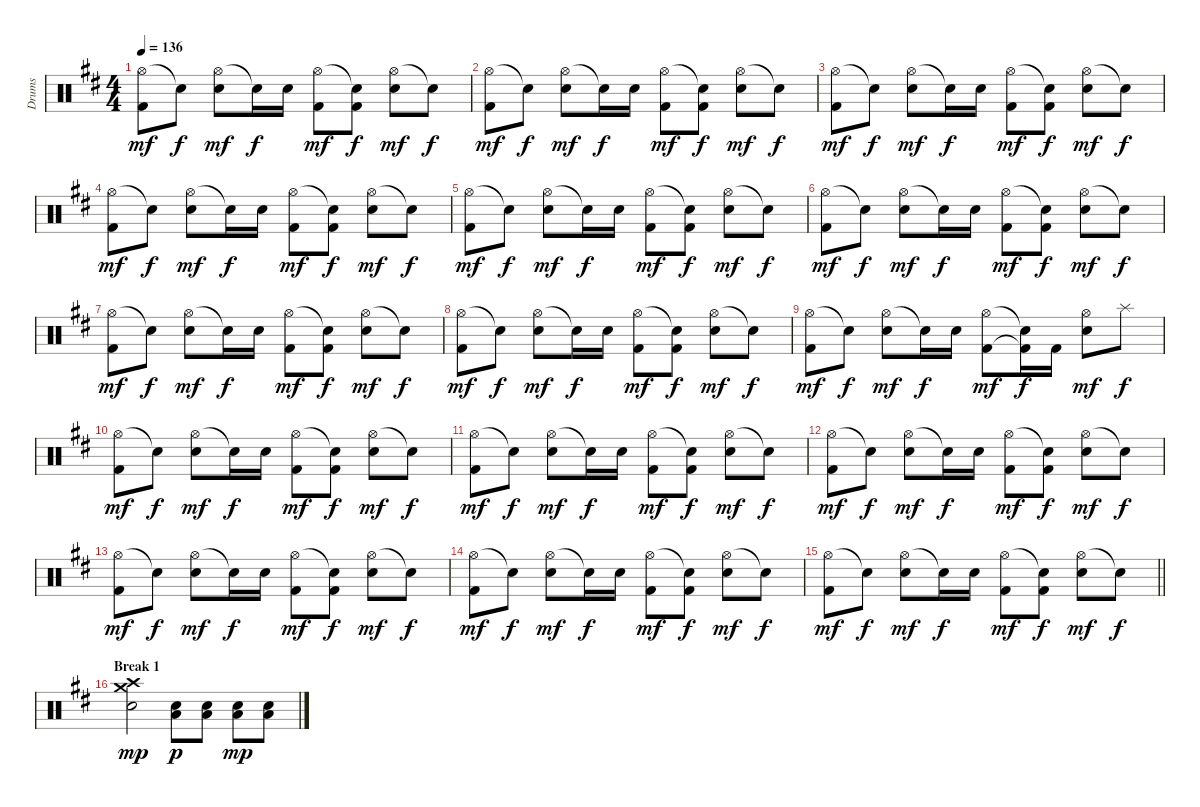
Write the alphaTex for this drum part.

\track ("Drums" "Drums") {instrument percussion}
\staff {score}
\articulation defaults
\ts (4 4)
\tempo 136
\clef neutral
\ks d
("Hi-Hat (open)" "Kick (hit) 2").8{dy mf} "Snare (hit)"{t}.8{dy f} ("Hi-Hat (open)" "Electric Snare (hit)").8{dy mf} "Snare (hit)"{t}.16{dy f} "Electric Snare (hit)".16 ("Hi-Hat (open)" "Kick (hit) 2").8{dy mf} ("Snare (hit)"{t} "Kick (hit) 2").8{dy f} ("Hi-Hat (open)" "Electric Snare (hit)").8{dy mf} "Snare (hit)"{t}.8{dy f} |
("Hi-Hat (open)" "Kick (hit) 2").8{dy mf} "Snare (hit)"{t}.8{dy f} ("Hi-Hat (open)" "Electric Snare (hit)").8{dy mf} "Snare (hit)"{t}.16{dy f} "Electric Snare (hit)".16 ("Hi-Hat (open)" "Kick (hit) 2").8{dy mf} ("Snare (hit)"{t} "Kick (hit) 2").8{dy f} ("Hi-Hat (open)" "Electric Snare (hit)").8{dy mf} "Snare (hit)"{t}.8{dy f} |
("Hi-Hat (open)" "Kick (hit) 2").8{dy mf} "Snare (hit)"{t}.8{dy f} ("Hi-Hat (open)" "Electric Snare (hit)").8{dy mf} "Snare (hit)"{t}.16{dy f} "Electric Snare (hit)".16 ("Hi-Hat (open)" "Kick (hit) 2").8{dy mf} ("Snare (hit)"{t} "Kick (hit) 2").8{dy f} ("Hi-Hat (open)" "Electric Snare (hit)").8{dy mf} "Snare (hit)"{t}.8{dy f} |
("Hi-Hat (open)" "Kick (hit) 2").8{dy mf} "Snare (hit)"{t}.8{dy f} ("Hi-Hat (open)" "Electric Snare (hit)").8{dy mf} "Snare (hit)"{t}.16{dy f} "Electric Snare (hit)".16 ("Hi-Hat (open)" "Kick (hit) 2").8{dy mf} ("Snare (hit)"{t} "Kick (hit) 2").8{dy f} ("Hi-Hat (open)" "Electric Snare (hit)").8{dy mf} "Snare (hit)"{t}.8{dy f} |
("Hi-Hat (open)" "Kick (hit) 2").8{dy mf} "Snare (hit)"{t}.8{dy f} ("Hi-Hat (open)" "Electric Snare (hit)").8{dy mf} "Snare (hit)"{t}.16{dy f} "Electric Snare (hit)".16 ("Hi-Hat (open)" "Kick (hit) 2").8{dy mf} ("Snare (hit)"{t} "Kick (hit) 2").8{dy f} ("Hi-Hat (open)" "Electric Snare (hit)").8{dy mf} "Snare (hit)"{t}.8{dy f} |
("Hi-Hat (open)" "Kick (hit) 2").8{dy mf} "Snare (hit)"{t}.8{dy f} ("Hi-Hat (open)" "Electric Snare (hit)").8{dy mf} "Snare (hit)"{t}.16{dy f} "Electric Snare (hit)".16 ("Hi-Hat (open)" "Kick (hit) 2").8{dy mf} ("Snare (hit)"{t} "Kick (hit) 2").8{dy f} ("Hi-Hat (open)" "Electric Snare (hit)").8{dy mf} "Snare (hit)"{t}.8{dy f} |
("Hi-Hat (open)" "Kick (hit) 2").8{dy mf} "Snare (hit)"{t}.8{dy f} ("Hi-Hat (open)" "Electric Snare (hit)").8{dy mf} "Snare (hit)"{t}.16{dy f} "Electric Snare (hit)".16 ("Hi-Hat (open)" "Kick (hit) 2").8{dy mf} ("Snare (hit)"{t} "Kick (hit) 2").8{dy f} ("Hi-Hat (open)" "Electric Snare (hit)").8{dy mf} "Snare (hit)"{t}.8{dy f} |
("Hi-Hat (open)" "Kick (hit) 2").8{dy mf} "Snare (hit)"{t}.8{dy f} ("Hi-Hat (open)" "Electric Snare (hit)").8{dy mf} "Snare (hit)"{t}.16{dy f} "Electric Snare (hit)".16 ("Hi-Hat (open)" "Kick (hit) 2").8{dy mf} ("Snare (hit)"{t} "Kick (hit) 2").8{dy f} ("Hi-Hat (open)" "Electric Snare (hit)").8{dy mf} "Snare (hit)"{t}.8{dy f} |
("Hi-Hat (open)" "Kick (hit) 2").8{dy mf} "Snare (hit)"{t}.8{dy f} ("Hi-Hat (open)" "Electric Snare (hit)").8{dy mf} "Snare (hit)"{t}.16{dy f} "Electric Snare (hit)".16 ("Hi-Hat (open)" "Kick (hit) 2").8{dy mf} ("Snare (hit)"{t} "Kick (hit) 2"{t}).16{dy f} "Kick (hit) 2".16 ("Hi-Hat (open)" "Electric Snare (hit)").8{dy mf} "Splash (hit)".8{dy f} |
("Hi-Hat (open)" "Kick (hit) 2").8{dy mf} "Snare (hit)"{t}.8{dy f} ("Hi-Hat (open)" "Electric Snare (hit)").8{dy mf} "Snare (hit)"{t}.16{dy f} "Electric Snare (hit)".16 ("Hi-Hat (open)" "Kick (hit) 2").8{dy mf} ("Snare (hit)"{t} "Kick (hit) 2").8{dy f} ("Hi-Hat (open)" "Electric Snare (hit)").8{dy mf} "Snare (hit)"{t}.8{dy f} |
("Hi-Hat (open)" "Kick (hit) 2").8{dy mf} "Snare (hit)"{t}.8{dy f} ("Hi-Hat (open)" "Electric Snare (hit)").8{dy mf} "Snare (hit)"{t}.16{dy f} "Electric Snare (hit)".16 ("Hi-Hat (open)" "Kick (hit) 2").8{dy mf} ("Snare (hit)"{t} "Kick (hit) 2").8{dy f} ("Hi-Hat (open)" "Electric Snare (hit)").8{dy mf} "Snare (hit)"{t}.8{dy f} |
("Hi-Hat (open)" "Kick (hit) 2").8{dy mf} "Snare (hit)"{t}.8{dy f} ("Hi-Hat (open)" "Electric Snare (hit)").8{dy mf} "Snare (hit)"{t}.16{dy f} "Electric Snare (hit)".16 ("Hi-Hat (open)" "Kick (hit) 2").8{dy mf} ("Snare (hit)"{t} "Kick (hit) 2").8{dy f} ("Hi-Hat (open)" "Electric Snare (hit)").8{dy mf} "Snare (hit)"{t}.8{dy f} |
("Hi-Hat (open)" "Kick (hit) 2").8{dy mf} "Snare (hit)"{t}.8{dy f} ("Hi-Hat (open)" "Electric Snare (hit)").8{dy mf} "Snare (hit)"{t}.16{dy f} "Electric Snare (hit)".16 ("Hi-Hat (open)" "Kick (hit) 2").8{dy mf} ("Snare (hit)"{t} "Kick (hit) 2").8{dy f} ("Hi-Hat (open)" "Electric Snare (hit)").8{dy mf} "Snare (hit)"{t}.8{dy f} |
("Hi-Hat (open)" "Kick (hit) 2").8{dy mf} "Snare (hit)"{t}.8{dy f} ("Hi-Hat (open)" "Electric Snare (hit)").8{dy mf} "Snare (hit)"{t}.16{dy f} "Electric Snare (hit)".16 ("Hi-Hat (open)" "Kick (hit) 2").8{dy mf} ("Snare (hit)"{t} "Kick (hit) 2").8{dy f} ("Hi-Hat (open)" "Electric Snare (hit)").8{dy mf} "Snare (hit)"{t}.8{dy f} |
\barLineRight lightlight
("Hi-Hat (open)" "Kick (hit) 2").8{dy mf} "Snare (hit)"{t}.8{dy f} ("Hi-Hat (open)" "Electric Snare (hit)").8{dy mf} "Snare (hit)"{t}.16{dy f} "Electric Snare (hit)".16 ("Hi-Hat (open)" "Kick (hit) 2").8{dy mf} ("Snare (hit)"{t} "Kick (hit) 2").8{dy f} ("Hi-Hat (open)" "Electric Snare (hit)").8{dy mf} "Snare (hit)"{t}.8{dy f} |
\section ("" "Break 1")
("Crash medium (hit)" "Crash high (hit)" "Electric Snare (hit)").2{dy mp} ("Low Tom (hit)" "Electric Snare (hit)").8{dy p} ("Low Tom (hit)" "Electric Snare (hit)").8 ("Low Tom (hit)" "Electric Snare (hit)").8{dy mp} ("Low Tom (hit)" "Electric Snare (hit)").8
